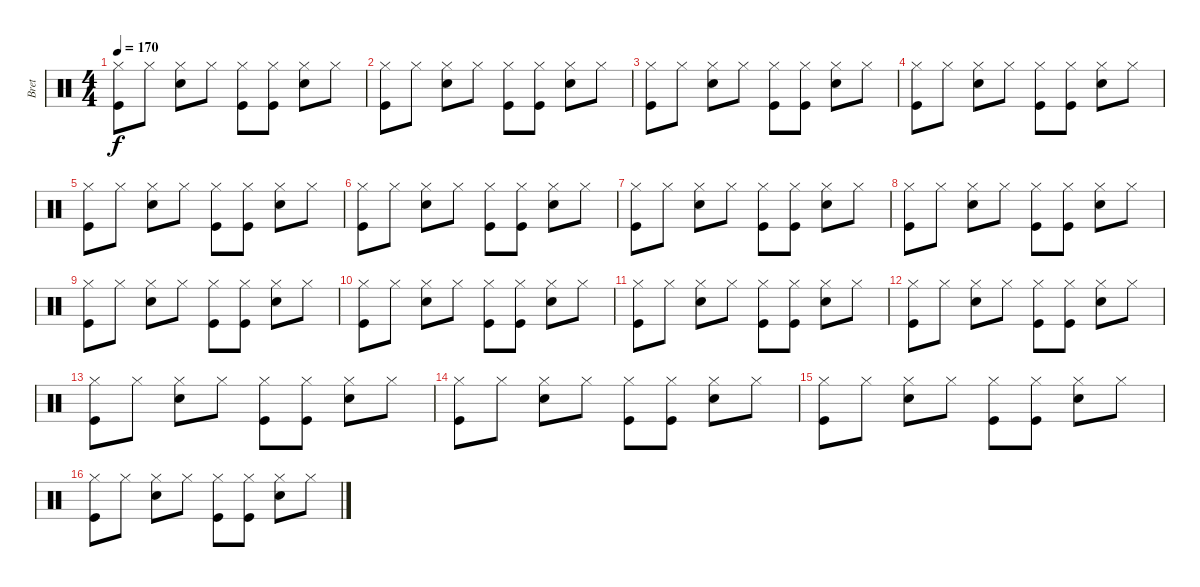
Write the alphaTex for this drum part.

\track ("Bret" "Bret") {instrument percussion}
\staff {score}
\articulation defaults
\ts (4 4)
\tempo 170
\clef neutral
\ks c
("Hi-Hat (closed)" "Kick (hit)").8{dy f} "Hi-Hat (closed)".8 ("Hi-Hat (closed)" "Electric Snare (hit)").8 "Hi-Hat (closed)".8 ("Hi-Hat (closed)" "Kick (hit)").8 ("Hi-Hat (closed)" "Kick (hit)").8 ("Hi-Hat (closed)" "Electric Snare (hit)").8 "Hi-Hat (closed)".8 |
("Hi-Hat (closed)" "Kick (hit)").8 "Hi-Hat (closed)".8 ("Hi-Hat (closed)" "Electric Snare (hit)").8 "Hi-Hat (closed)".8 ("Hi-Hat (closed)" "Kick (hit)").8 ("Hi-Hat (closed)" "Kick (hit)").8 ("Hi-Hat (closed)" "Electric Snare (hit)").8 "Hi-Hat (closed)".8 |
("Hi-Hat (closed)" "Kick (hit)").8 "Hi-Hat (closed)".8 ("Hi-Hat (closed)" "Electric Snare (hit)").8 "Hi-Hat (closed)".8 ("Hi-Hat (closed)" "Kick (hit)").8 ("Hi-Hat (closed)" "Kick (hit)").8 ("Hi-Hat (closed)" "Electric Snare (hit)").8 "Hi-Hat (closed)".8 |
("Hi-Hat (closed)" "Kick (hit)").8 "Hi-Hat (closed)".8 ("Hi-Hat (closed)" "Electric Snare (hit)").8 "Hi-Hat (closed)".8 ("Hi-Hat (closed)" "Kick (hit)").8 ("Hi-Hat (closed)" "Kick (hit)").8 ("Hi-Hat (closed)" "Electric Snare (hit)").8 "Hi-Hat (closed)".8 |
("Hi-Hat (closed)" "Kick (hit)").8 "Hi-Hat (closed)".8 ("Hi-Hat (closed)" "Electric Snare (hit)").8 "Hi-Hat (closed)".8 ("Hi-Hat (closed)" "Kick (hit)").8 ("Hi-Hat (closed)" "Kick (hit)").8 ("Hi-Hat (closed)" "Electric Snare (hit)").8 "Hi-Hat (closed)".8 |
("Hi-Hat (closed)" "Kick (hit)").8 "Hi-Hat (closed)".8 ("Hi-Hat (closed)" "Electric Snare (hit)").8 "Hi-Hat (closed)".8 ("Hi-Hat (closed)" "Kick (hit)").8 ("Hi-Hat (closed)" "Kick (hit)").8 ("Hi-Hat (closed)" "Electric Snare (hit)").8 "Hi-Hat (closed)".8 |
("Hi-Hat (closed)" "Kick (hit)").8 "Hi-Hat (closed)".8 ("Hi-Hat (closed)" "Electric Snare (hit)").8 "Hi-Hat (closed)".8 ("Hi-Hat (closed)" "Kick (hit)").8 ("Hi-Hat (closed)" "Kick (hit)").8 ("Hi-Hat (closed)" "Electric Snare (hit)").8 "Hi-Hat (closed)".8 |
("Hi-Hat (closed)" "Kick (hit)").8 "Hi-Hat (closed)".8 ("Hi-Hat (closed)" "Electric Snare (hit)").8 "Hi-Hat (closed)".8 ("Hi-Hat (closed)" "Kick (hit)").8 ("Hi-Hat (closed)" "Kick (hit)").8 ("Hi-Hat (closed)" "Electric Snare (hit)").8 "Hi-Hat (closed)".8 |
("Hi-Hat (closed)" "Kick (hit)").8 "Hi-Hat (closed)".8 ("Hi-Hat (closed)" "Electric Snare (hit)").8 "Hi-Hat (closed)".8 ("Hi-Hat (closed)" "Kick (hit)").8 ("Hi-Hat (closed)" "Kick (hit)").8 ("Hi-Hat (closed)" "Electric Snare (hit)").8 "Hi-Hat (closed)".8 |
("Hi-Hat (closed)" "Kick (hit)").8 "Hi-Hat (closed)".8 ("Hi-Hat (closed)" "Electric Snare (hit)").8 "Hi-Hat (closed)".8 ("Hi-Hat (closed)" "Kick (hit)").8 ("Hi-Hat (closed)" "Kick (hit)").8 ("Hi-Hat (closed)" "Electric Snare (hit)").8 "Hi-Hat (closed)".8 |
("Hi-Hat (closed)" "Kick (hit)").8 "Hi-Hat (closed)".8 ("Hi-Hat (closed)" "Electric Snare (hit)").8 "Hi-Hat (closed)".8 ("Hi-Hat (closed)" "Kick (hit)").8 ("Hi-Hat (closed)" "Kick (hit)").8 ("Hi-Hat (closed)" "Electric Snare (hit)").8 "Hi-Hat (closed)".8 |
("Hi-Hat (closed)" "Kick (hit)").8 "Hi-Hat (closed)".8 ("Hi-Hat (closed)" "Electric Snare (hit)").8 "Hi-Hat (closed)".8 ("Hi-Hat (closed)" "Kick (hit)").8 ("Hi-Hat (closed)" "Kick (hit)").8 ("Hi-Hat (closed)" "Electric Snare (hit)").8 "Hi-Hat (closed)".8 |
("Hi-Hat (closed)" "Kick (hit)").8 "Hi-Hat (closed)".8 ("Hi-Hat (closed)" "Electric Snare (hit)").8 "Hi-Hat (closed)".8 ("Hi-Hat (closed)" "Kick (hit)").8 ("Hi-Hat (closed)" "Kick (hit)").8 ("Hi-Hat (closed)" "Electric Snare (hit)").8 "Hi-Hat (closed)".8 |
("Hi-Hat (closed)" "Kick (hit)").8 "Hi-Hat (closed)".8 ("Hi-Hat (closed)" "Electric Snare (hit)").8 "Hi-Hat (closed)".8 ("Hi-Hat (closed)" "Kick (hit)").8 ("Hi-Hat (closed)" "Kick (hit)").8 ("Hi-Hat (closed)" "Electric Snare (hit)").8 "Hi-Hat (closed)".8 |
("Hi-Hat (closed)" "Kick (hit)").8 "Hi-Hat (closed)".8 ("Hi-Hat (closed)" "Electric Snare (hit)").8 "Hi-Hat (closed)".8 ("Hi-Hat (closed)" "Kick (hit)").8 ("Hi-Hat (closed)" "Kick (hit)").8 ("Hi-Hat (closed)" "Electric Snare (hit)").8 "Hi-Hat (closed)".8 |
("Hi-Hat (closed)" "Kick (hit)").8 "Hi-Hat (closed)".8 ("Hi-Hat (closed)" "Electric Snare (hit)").8 "Hi-Hat (closed)".8 ("Hi-Hat (closed)" "Kick (hit)").8 ("Hi-Hat (closed)" "Kick (hit)").8 ("Hi-Hat (closed)" "Electric Snare (hit)").8 "Hi-Hat (closed)".8
